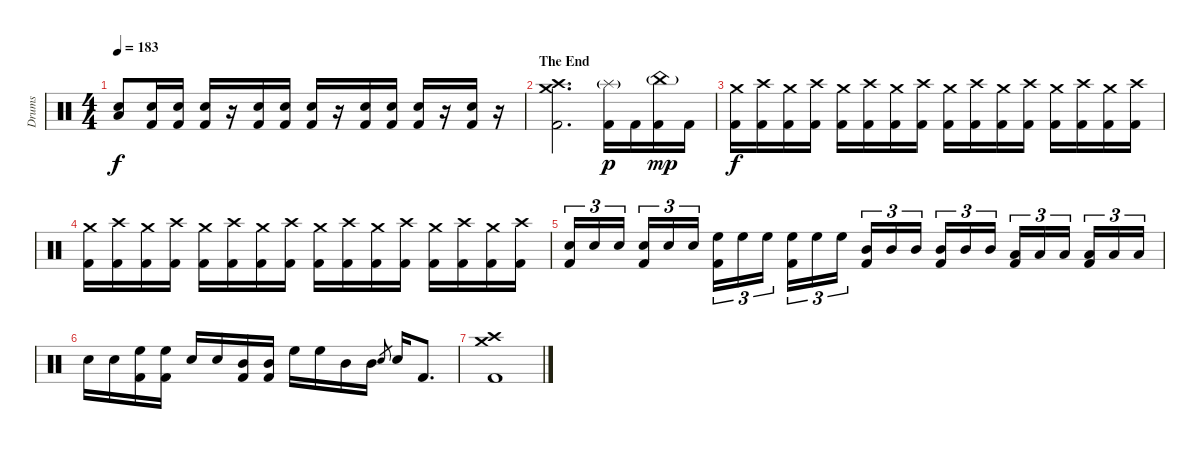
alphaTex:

\track ("Drums" "Drums") {instrument percussion}
\staff {score}
\articulation defaults
\ts (4 4)
\tempo 183
\clef neutral
\ks c
("Electric Snare (hit)" "Low Floor Tom (hit)").8{dy f} ("Electric Snare (hit)" "Kick (hit) 2").16 ("Electric Snare (hit)" "Kick (hit) 2").16 ("Electric Snare (hit)" "Kick (hit) 2").16 r.16 ("Electric Snare (hit)" "Kick (hit) 2").16 ("Electric Snare (hit)" "Kick (hit) 2").16 ("Electric Snare (hit)" "Kick (hit) 2").16 r.16 ("Electric Snare (hit)" "Kick (hit) 2").16 ("Electric Snare (hit)" "Kick (hit) 2").16 ("Electric Snare (hit)" "Kick (hit) 2").16 r.16 ("Electric Snare (hit)" "Kick (hit) 2").16 r.16 |
\section ("" "The End")
("Crash high (hit)" "Crash medium (hit)" "Kick (hit) 2").2{d} ("Splash (hit)"{g} "Kick (hit) 2").16{dy p} "Kick (hit) 2".16 ("China (hit)"{g} "Kick (hit) 2").16{dy mp} "Kick (hit) 2".16 |
("Crash medium (hit)" "Kick (hit) 2").16{dy f volume 10} ("Crash high (hit)" "Kick (hit) 2").16 ("Crash medium (hit)" "Kick (hit) 2").16 ("Crash high (hit)" "Kick (hit) 2").16 ("Crash medium (hit)" "Kick (hit) 2").16 ("Crash high (hit)" "Kick (hit) 2").16 ("Crash medium (hit)" "Kick (hit) 2").16 ("Crash high (hit)" "Kick (hit) 2").16 ("Crash medium (hit)" "Kick (hit) 2").16 ("Crash high (hit)" "Kick (hit) 2").16 ("Crash medium (hit)" "Kick (hit) 2").16 ("Crash high (hit)" "Kick (hit) 2").16 ("Crash medium (hit)" "Kick (hit) 2").16{volume 15} ("Crash high (hit)" "Kick (hit) 2").16 ("Crash medium (hit)" "Kick (hit) 2").16 ("Crash high (hit)" "Kick (hit) 2").16 |
("Crash medium (hit)" "Kick (hit) 2").16 ("Crash high (hit)" "Kick (hit) 2").16 ("Crash medium (hit)" "Kick (hit) 2").16 ("Crash high (hit)" "Kick (hit) 2").16 ("Crash medium (hit)" "Kick (hit) 2").16 ("Crash high (hit)" "Kick (hit) 2").16 ("Crash medium (hit)" "Kick (hit) 2").16 ("Crash high (hit)" "Kick (hit) 2").16 ("Crash medium (hit)" "Kick (hit) 2").16 ("Crash high (hit)" "Kick (hit) 2").16 ("Crash medium (hit)" "Kick (hit) 2").16 ("Crash high (hit)" "Kick (hit) 2").16 ("Crash medium (hit)" "Kick (hit) 2").16 ("Crash high (hit)" "Kick (hit) 2").16 ("Crash medium (hit)" "Kick (hit) 2").16 ("Crash high (hit)" "Kick (hit) 2").16 |
("Electric Snare (hit)" "Kick (hit) 2").16{tu (3 2)} "Electric Snare (hit)".16{tu (3 2)} "Electric Snare (hit)".16{tu (3 2)} ("Electric Snare (hit)" "Kick (hit) 2").16{tu (3 2)} "Electric Snare (hit)".16{tu (3 2)} "Electric Snare (hit)".16{tu (3 2)} ("High Floor Tom (hit)" "Kick (hit) 2").16{tu (3 2)} "High Floor Tom (hit)".16{tu (3 2)} "High Floor Tom (hit)".16{tu (3 2)} ("High Floor Tom (hit)" "Kick (hit) 2").16{tu (3 2)} "High Floor Tom (hit)".16{tu (3 2)} "High Floor Tom (hit)".16{tu (3 2)} ("Mid Tom (hit)" "Kick (hit) 2").16{tu (3 2)} "Mid Tom (hit)".16{tu (3 2)} "Mid Tom (hit)".16{tu (3 2)} ("Mid Tom (hit)" "Kick (hit) 2").16{tu (3 2)} "Mid Tom (hit)".16{tu (3 2)} "Mid Tom (hit)".16{tu (3 2)} ("Low Tom (hit)" "Kick (hit) 2").16{tu (3 2)} "Low Tom (hit)".16{tu (3 2)} "Low Tom (hit)".16{tu (3 2)} ("Low Tom (hit)" "Kick (hit) 2").16{tu (3 2)} "Low Tom (hit)".16{tu (3 2)} "Low Tom (hit)".16{tu (3 2)} |
"Electric Snare (hit)".16 "Electric Snare (hit)".16 ("High Floor Tom (hit)" "Kick (hit) 2").16 ("High Floor Tom (hit)" "Kick (hit) 2").16 "Electric Snare (hit)".16 "Electric Snare (hit)".16 ("Mid Tom (hit)" "Kick (hit) 2").16 ("Mid Tom (hit)" "Kick (hit) 2").16 "High Floor Tom (hit)".16 "High Floor Tom (hit)".16 "Mid Tom (hit)".16 "Mid Tom (hit)".16 "Electric Snare (hit)".8{gr} "Electric Snare (hit)".16 "Kick (hit) 2".8{d} |
("Crash high (hit)" "Crash medium (hit)" "Kick (hit) 2").1
